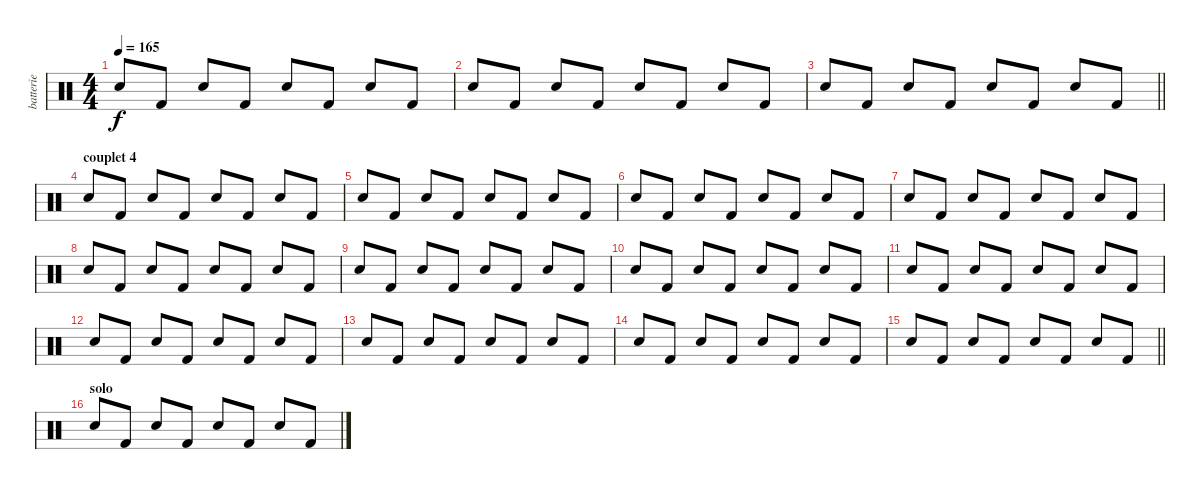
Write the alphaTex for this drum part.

\track ("batterie" "batterie") {instrument percussion}
\staff {score}
\articulation defaults
\ts (4 4)
\tempo 165
\clef neutral
\ks c "Snare (hit) 2".8{dy f} "Kick (hit) 2".8 "Snare (hit) 2".8 "Kick (hit) 2".8 "Snare (hit) 2".8 "Kick (hit) 2".8 "Snare (hit) 2".8 "Kick (hit) 2".8
|
"Snare (hit) 2".8 "Kick (hit) 2".8 "Snare (hit) 2".8 "Kick (hit) 2".8 "Snare (hit) 2".8 "Kick (hit) 2".8 "Snare (hit) 2".8 "Kick (hit) 2".8 |
\barLineRight lightlight "Snare (hit) 2".8 "Kick (hit) 2".8 "Snare (hit) 2".8 "Kick (hit) 2".8 "Snare (hit) 2".8 "Kick (hit) 2".8 "Snare (hit) 2".8 "Kick (hit) 2".8
|
\section ("" "couplet 4")
"Snare (hit) 2".8 "Kick (hit) 2".8 "Snare (hit) 2".8 "Kick (hit) 2".8 "Snare (hit) 2".8 "Kick (hit) 2".8 "Snare (hit) 2".8 "Kick (hit) 2".8 |
"Snare (hit) 2".8 "Kick (hit) 2".8 "Snare (hit) 2".8 "Kick (hit) 2".8 "Snare (hit) 2".8 "Kick (hit) 2".8 "Snare (hit) 2".8 "Kick (hit) 2".8 |
"Snare (hit) 2".8 "Kick (hit) 2".8 "Snare (hit) 2".8 "Kick (hit) 2".8 "Snare (hit) 2".8 "Kick (hit) 2".8 "Snare (hit) 2".8 "Kick (hit) 2".8 |
"Snare (hit) 2".8 "Kick (hit) 2".8 "Snare (hit) 2".8 "Kick (hit) 2".8 "Snare (hit) 2".8 "Kick (hit) 2".8 "Snare (hit) 2".8 "Kick (hit) 2".8 |
"Snare (hit) 2".8 "Kick (hit) 2".8 "Snare (hit) 2".8 "Kick (hit) 2".8 "Snare (hit) 2".8 "Kick (hit) 2".8 "Snare (hit) 2".8 "Kick (hit) 2".8 |
"Snare (hit) 2".8 "Kick (hit) 2".8 "Snare (hit) 2".8 "Kick (hit) 2".8 "Snare (hit) 2".8 "Kick (hit) 2".8 "Snare (hit) 2".8 "Kick (hit) 2".8 |
"Snare (hit) 2".8 "Kick (hit) 2".8 "Snare (hit) 2".8 "Kick (hit) 2".8 "Snare (hit) 2".8 "Kick (hit) 2".8 "Snare (hit) 2".8 "Kick (hit) 2".8 |
"Snare (hit) 2".8 "Kick (hit) 2".8 "Snare (hit) 2".8 "Kick (hit) 2".8 "Snare (hit) 2".8 "Kick (hit) 2".8 "Snare (hit) 2".8 "Kick (hit) 2".8 |
"Snare (hit) 2".8 "Kick (hit) 2".8 "Snare (hit) 2".8 "Kick (hit) 2".8 "Snare (hit) 2".8 "Kick (hit) 2".8 "Snare (hit) 2".8 "Kick (hit) 2".8 |
"Snare (hit) 2".8 "Kick (hit) 2".8 "Snare (hit) 2".8 "Kick (hit) 2".8 "Snare (hit) 2".8 "Kick (hit) 2".8 "Snare (hit) 2".8 "Kick (hit) 2".8 |
"Snare (hit) 2".8 "Kick (hit) 2".8 "Snare (hit) 2".8 "Kick (hit) 2".8 "Snare (hit) 2".8 "Kick (hit) 2".8 "Snare (hit) 2".8 "Kick (hit) 2".8 |
\barLineRight lightlight "Snare (hit) 2".8 "Kick (hit) 2".8 "Snare (hit) 2".8 "Kick (hit) 2".8 "Snare (hit) 2".8 "Kick (hit) 2".8 "Snare (hit) 2".8 "Kick (hit) 2".8
|
\section ("" "solo")
"Snare (hit) 2".8 "Kick (hit) 2".8 "Snare (hit) 2".8 "Kick (hit) 2".8 "Snare (hit) 2".8 "Kick (hit) 2".8 "Snare (hit) 2".8 "Kick (hit) 2".8
